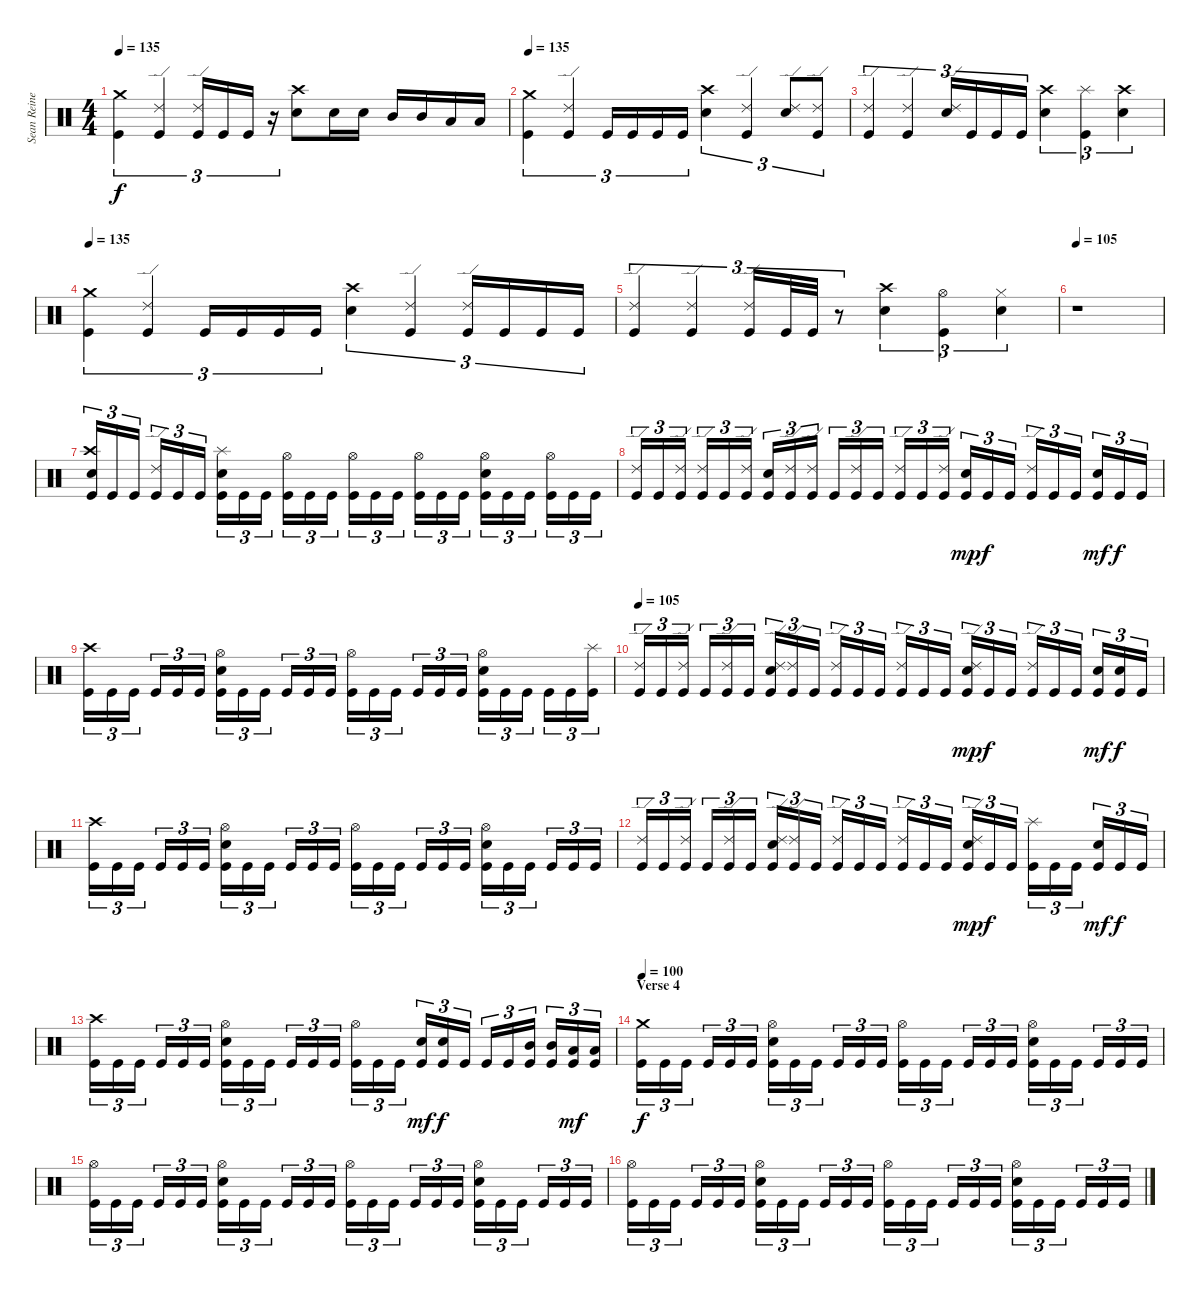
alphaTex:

\track ("Sean Reinert " "Sean Reine") {instrument percussion}
\staff {score}
\articulation defaults
\ts (4 4)
\tempo 135
\clef neutral
\ks c
("Crash medium (hit)" "Kick (hit)").4{tu (3 2) dy f} ("Ride (edge) 2" "Kick (hit)").4{tu (3 2)} ("Ride (edge) 2" "Kick (hit)").16{tu (3 2)} "Kick (hit)".16{tu (3 2)} "Kick (hit)".16{tu (3 2)} r.16{tu (3 2)} ("Crash high (hit)" "Electric Snare (hit)").8 "Electric Snare (hit)".16 "Electric Snare (hit)".16 "Mid Tom (hit)".16 "Mid Tom (hit)".16 "Low Tom (hit)".16 "Low Tom (hit)".16 |
\tempo 135
("Crash medium (hit)" "Kick (hit)").4{tu (3 2)} ("Ride (edge) 2" "Kick (hit)").4{tu (3 2)} "Kick (hit)".16{tu (3 2)} "Kick (hit)".16{tu (3 2)} "Kick (hit)".16{tu (3 2)} "Kick (hit)".16{tu (3 2)} ("Crash high (hit)" "Electric Snare (hit)").4{tu (3 2)} ("Ride (edge) 2" "Kick (hit)").4{tu (3 2)} ("Ride (edge) 2" "Electric Snare (hit)").8{tu (3 2)} ("Ride (edge) 2" "Kick (hit)").8{tu (3 2)} |
("Ride (edge) 2" "Kick (hit)").4{tu (3 2)} ("Ride (edge) 2" "Kick (hit)").4{tu (3 2)} ("Ride (edge) 2" "Electric Snare (hit)").16{tu (3 2)} "Kick (hit)".16{tu (3 2)} "Kick (hit)".16{tu (3 2)} "Kick (hit)".16{tu (3 2)} ("Crash high (hit)" "Electric Snare (hit)").4{tu (3 2)} ("Splash (hit)" "Kick (hit)").4{tu (3 2)} ("Crash high (hit)" "Electric Snare (hit)").4{tu (3 2)} |
\tempo 135
("Crash medium (hit)" "Kick (hit)").4{tu (3 2)} ("Ride (edge) 2" "Kick (hit)").4{tu (3 2)} "Kick (hit)".16{tu (3 2)} "Kick (hit)".16{tu (3 2)} "Kick (hit)".16{tu (3 2)} "Kick (hit)".16{tu (3 2)} ("Crash high (hit)" "Electric Snare (hit)").4{tu (3 2)} ("Ride (edge) 2" "Kick (hit)").4{tu (3 2)} ("Ride (edge) 2" "Kick (hit)").16{tu (3 2)} "Kick (hit)".16{tu (3 2)} "Kick (hit)".16{tu (3 2)} "Kick (hit)".16{tu (3 2)} |
("Ride (edge) 2" "Kick (hit)").4{tu (3 2)} ("Ride (edge) 2" "Kick (hit)").4{tu (3 2)} ("Ride (edge) 2" "Kick (hit)").16{tu (3 2)} "Kick (hit)".32{tu (3 2)} "Kick (hit)".32{tu (3 2)} r.8{tu (3 2)} ("Crash high (hit)" "Electric Snare (hit)").4{tu (3 2)} ("Hi-Hat (open)" "Kick (hit)").4{tu (3 2)} ("Hi-Hat (closed)" "Electric Snare (hit)").4{tu (3 2)} |
\tempo 105
r.1 |
("Crash high (hit)" "Electric Snare (hit)" "Kick (hit)").16{tu (3 2)} "Kick (hit)".16{tu (3 2)} "Kick (hit)".16{tu (3 2)} ("Ride (edge) 2" "Kick (hit)").16{tu (3 2)} "Kick (hit)".16{tu (3 2)} "Kick (hit)".16{tu (3 2)} ("Splash (hit)" "Electric Snare (hit)" "Kick (hit)").16{tu (3 2)} "Kick (hit)".16{tu (3 2)} "Kick (hit)".16{tu (3 2)} ("Hi-Hat (open)" "Kick (hit)").16{tu (3 2)} "Kick (hit)".16{tu (3 2)} "Kick (hit)".16{tu (3 2)} ("Hi-Hat (open)" "Kick (hit)").16{tu (3 2)} "Kick (hit)".16{tu (3 2)} "Kick (hit)".16{tu (3 2)} ("Hi-Hat (open)" "Kick (hit)").16{tu (3 2)} "Kick (hit)".16{tu (3 2)} "Kick (hit)".16{tu (3 2)} ("Hi-Hat (open)" "Electric Snare (hit)" "Kick (hit)").16{tu (3 2)} "Kick (hit)".16{tu (3 2)} "Kick (hit)".16{tu (3 2)} ("Hi-Hat (open)" "Kick (hit)").16{tu (3 2)} "Kick (hit)".16{tu (3 2)} "Kick (hit)".16{tu (3 2)} |
("Ride (edge) 2" "Kick (hit)").16{tu (3 2)} "Kick (hit)".16{tu (3 2)} ("Ride (edge) 2" "Kick (hit)").16{tu (3 2)} ("Ride (edge) 2" "Kick (hit)").16{tu (3 2)} "Kick (hit)".16{tu (3 2)} ("Ride (edge) 2" "Kick (hit)").16{tu (3 2)} ("Electric Snare (hit)" "Kick (hit)").16{tu (3 2)} ("Ride (edge) 2" "Kick (hit)").16{tu (3 2)} ("Ride (edge) 2" "Kick (hit)").16{tu (3 2)} "Kick (hit)".16{tu (3 2)} ("Ride (edge) 2" "Kick (hit)").16{tu (3 2)} "Kick (hit)".16{tu (3 2)} ("Ride (edge) 2" "Kick (hit)").16{tu (3 2)} "Kick (hit)".16{tu (3 2)} ("Ride (edge) 2" "Kick (hit)").16{tu (3 2)} ("Electric Snare (hit)" "Kick (hit)").16{tu (3 2) dy mp} "Kick (hit)".16{tu (3 2) dy f} "Kick (hit)".16{tu (3 2)} ("Ride (edge) 2" "Kick (hit)").16{tu (3 2)} "Kick (hit)".16{tu (3 2)} "Kick (hit)".16{tu (3 2)} ("Electric Snare (hit)" "Kick (hit)").16{tu (3 2) dy mf} "Kick (hit)".16{tu (3 2) dy f} "Kick (hit)".16{tu (3 2)} |
("Crash high (hit)" "Kick (hit)").16{tu (3 2)} "Kick (hit)".16{tu (3 2)} "Kick (hit)".16{tu (3 2)} "Kick (hit)".16{tu (3 2)} "Kick (hit)".16{tu (3 2)} "Kick (hit)".16{tu (3 2)} ("Hi-Hat (open)" "Electric Snare (hit)" "Kick (hit)").16{tu (3 2)} "Kick (hit)".16{tu (3 2)} "Kick (hit)".16{tu (3 2)} "Kick (hit)".16{tu (3 2)} "Kick (hit)".16{tu (3 2)} "Kick (hit)".16{tu (3 2)} ("Hi-Hat (open)" "Kick (hit)").16{tu (3 2)} "Kick (hit)".16{tu (3 2)} "Kick (hit)".16{tu (3 2)} "Kick (hit)".16{tu (3 2)} "Kick (hit)".16{tu (3 2)} "Kick (hit)".16{tu (3 2)} ("Hi-Hat (open)" "Electric Snare (hit)" "Kick (hit)").16{tu (3 2)} "Kick (hit)".16{tu (3 2)} "Kick (hit)".16{tu (3 2)} "Kick (hit)".16{tu (3 2)} "Kick (hit)".16{tu (3 2)} ("Splash (hit)" "Kick (hit)").16{tu (3 2)} |
\tempo 105
("Ride (edge) 2" "Kick (hit)").16{tu (3 2)} "Kick (hit)".16{tu (3 2)} ("Ride (edge) 2" "Kick (hit)").16{tu (3 2)} "Kick (hit)".16{tu (3 2)} ("Ride (edge) 2" "Kick (hit)").16{tu (3 2)} "Kick (hit)".16{tu (3 2)} ("Ride (edge) 2" "Electric Snare (hit)" "Kick (hit)").16{tu (3 2)} ("Ride (edge) 2" "Kick (hit)").16{tu (3 2)} "Kick (hit)".16{tu (3 2)} ("Ride (edge) 2" "Kick (hit)").16{tu (3 2)} "Kick (hit)".16{tu (3 2)} "Kick (hit)".16{tu (3 2)} ("Ride (edge) 2" "Kick (hit)").16{tu (3 2)} "Kick (hit)".16{tu (3 2)} "Kick (hit)".16{tu (3 2)} ("Ride (edge) 2" "Electric Snare (hit)" "Kick (hit)").16{tu (3 2) dy mp} "Kick (hit)".16{tu (3 2) dy f} "Kick (hit)".16{tu (3 2)} ("Ride (edge) 2" "Kick (hit)").16{tu (3 2)} "Kick (hit)".16{tu (3 2)} "Kick (hit)".16{tu (3 2)} ("Electric Snare (hit)" "Kick (hit)").16{tu (3 2) dy mf} ("Electric Snare (hit)" "Kick (hit)").16{tu (3 2) dy f} "Kick (hit)".16{tu (3 2)} |
("Crash high (hit)" "Kick (hit)").16{tu (3 2)} "Kick (hit)".16{tu (3 2)} "Kick (hit)".16{tu (3 2)} "Kick (hit)".16{tu (3 2)} "Kick (hit)".16{tu (3 2)} "Kick (hit)".16{tu (3 2)} ("Hi-Hat (open)" "Electric Snare (hit)" "Kick (hit)").16{tu (3 2)} "Kick (hit)".16{tu (3 2)} "Kick (hit)".16{tu (3 2)} "Kick (hit)".16{tu (3 2)} "Kick (hit)".16{tu (3 2)} "Kick (hit)".16{tu (3 2)} ("Hi-Hat (open)" "Kick (hit)").16{tu (3 2)} "Kick (hit)".16{tu (3 2)} "Kick (hit)".16{tu (3 2)} "Kick (hit)".16{tu (3 2)} "Kick (hit)".16{tu (3 2)} "Kick (hit)".16{tu (3 2)} ("Hi-Hat (open)" "Electric Snare (hit)" "Kick (hit)").16{tu (3 2)} "Kick (hit)".16{tu (3 2)} "Kick (hit)".16{tu (3 2)} "Kick (hit)".16{tu (3 2)} "Kick (hit)".16{tu (3 2)} "Kick (hit)".16{tu (3 2)} |
("Ride (edge) 2" "Kick (hit)").16{tu (3 2)} "Kick (hit)".16{tu (3 2)} ("Ride (edge) 2" "Kick (hit)").16{tu (3 2)} "Kick (hit)".16{tu (3 2)} ("Ride (edge) 2" "Kick (hit)").16{tu (3 2)} "Kick (hit)".16{tu (3 2)} ("Ride (edge) 2" "Electric Snare (hit)" "Kick (hit)").16{tu (3 2)} ("Ride (edge) 2" "Kick (hit)").16{tu (3 2)} "Kick (hit)".16{tu (3 2)} ("Ride (edge) 2" "Kick (hit)").16{tu (3 2)} "Kick (hit)".16{tu (3 2)} "Kick (hit)".16{tu (3 2)} ("Ride (edge) 2" "Kick (hit)").16{tu (3 2)} "Kick (hit)".16{tu (3 2)} "Kick (hit)".16{tu (3 2)} ("Ride (edge) 2" "Electric Snare (hit)" "Kick (hit)").16{tu (3 2) dy mp} "Kick (hit)".16{tu (3 2) dy f} "Kick (hit)".16{tu (3 2)} ("Splash (hit)" "Kick (hit)").16{tu (3 2)} "Kick (hit)".16{tu (3 2)} "Kick (hit)".16{tu (3 2)} ("Electric Snare (hit)" "Kick (hit)").16{tu (3 2) dy mf} "Kick (hit)".16{tu (3 2) dy f} "Kick (hit)".16{tu (3 2)} |
("Crash high (hit)" "Kick (hit)").16{tu (3 2)} "Kick (hit)".16{tu (3 2)} "Kick (hit)".16{tu (3 2)} "Kick (hit)".16{tu (3 2)} "Kick (hit)".16{tu (3 2)} "Kick (hit)".16{tu (3 2)} ("Hi-Hat (open)" "Electric Snare (hit)" "Kick (hit)").16{tu (3 2)} "Kick (hit)".16{tu (3 2)} "Kick (hit)".16{tu (3 2)} "Kick (hit)".16{tu (3 2)} "Kick (hit)".16{tu (3 2)} "Kick (hit)".16{tu (3 2)} ("Hi-Hat (open)" "Kick (hit)").16{tu (3 2)} "Kick (hit)".16{tu (3 2)} "Kick (hit)".16{tu (3 2)} ("Electric Snare (hit)" "Kick (hit)").16{tu (3 2) dy mf} ("Electric Snare (hit)" "Kick (hit)").16{tu (3 2) dy f} "Kick (hit)".16{tu (3 2)} "Kick (hit)".16{tu (3 2)} "Kick (hit)".16{tu (3 2)} ("Mid Tom (hit)" "Kick (hit)").16{tu (3 2)} ("Mid Tom (hit)" "Kick (hit)").16{tu (3 2)} ("Low Tom (hit)" "Kick (hit)").16{tu (3 2) dy mf} ("Low Tom (hit)" "Kick (hit)").16{tu (3 2)} |
\section ("" "Verse 4")
\tempo 100
("Crash medium (hit)" "Kick (hit)").16{tu (3 2) dy f} "Kick (hit)".16{tu (3 2)} "Kick (hit)".16{tu (3 2)} "Kick (hit)".16{tu (3 2)} "Kick (hit)".16{tu (3 2)} "Kick (hit)".16{tu (3 2)} ("Hi-Hat (open)" "Electric Snare (hit)" "Kick (hit)").16{tu (3 2)} "Kick (hit)".16{tu (3 2)} "Kick (hit)".16{tu (3 2)} "Kick (hit)".16{tu (3 2)} "Kick (hit)".16{tu (3 2)} "Kick (hit)".16{tu (3 2)} ("Hi-Hat (open)" "Kick (hit)").16{tu (3 2)} "Kick (hit)".16{tu (3 2)} "Kick (hit)".16{tu (3 2)} "Kick (hit)".16{tu (3 2)} "Kick (hit)".16{tu (3 2)} "Kick (hit)".16{tu (3 2)} ("Hi-Hat (open)" "Electric Snare (hit)" "Kick (hit)").16{tu (3 2)} "Kick (hit)".16{tu (3 2)} "Kick (hit)".16{tu (3 2)} "Kick (hit)".16{tu (3 2)} "Kick (hit)".16{tu (3 2)} "Kick (hit)".16{tu (3 2)} |
("Hi-Hat (open)" "Kick (hit)").16{tu (3 2)} "Kick (hit)".16{tu (3 2)} "Kick (hit)".16{tu (3 2)} "Kick (hit)".16{tu (3 2)} "Kick (hit)".16{tu (3 2)} "Kick (hit)".16{tu (3 2)} ("Hi-Hat (open)" "Electric Snare (hit)" "Kick (hit)").16{tu (3 2)} "Kick (hit)".16{tu (3 2)} "Kick (hit)".16{tu (3 2)} "Kick (hit)".16{tu (3 2)} "Kick (hit)".16{tu (3 2)} "Kick (hit)".16{tu (3 2)} ("Hi-Hat (open)" "Kick (hit)").16{tu (3 2)} "Kick (hit)".16{tu (3 2)} "Kick (hit)".16{tu (3 2)} "Kick (hit)".16{tu (3 2)} "Kick (hit)".16{tu (3 2)} "Kick (hit)".16{tu (3 2)} ("Hi-Hat (open)" "Electric Snare (hit)" "Kick (hit)").16{tu (3 2)} "Kick (hit)".16{tu (3 2)} "Kick (hit)".16{tu (3 2)} "Kick (hit)".16{tu (3 2)} "Kick (hit)".16{tu (3 2)} "Kick (hit)".16{tu (3 2)} |
("Hi-Hat (open)" "Kick (hit)").16{tu (3 2)} "Kick (hit)".16{tu (3 2)} "Kick (hit)".16{tu (3 2)} "Kick (hit)".16{tu (3 2)} "Kick (hit)".16{tu (3 2)} "Kick (hit)".16{tu (3 2)} ("Hi-Hat (open)" "Electric Snare (hit)" "Kick (hit)").16{tu (3 2)} "Kick (hit)".16{tu (3 2)} "Kick (hit)".16{tu (3 2)} "Kick (hit)".16{tu (3 2)} "Kick (hit)".16{tu (3 2)} "Kick (hit)".16{tu (3 2)} ("Hi-Hat (open)" "Kick (hit)").16{tu (3 2)} "Kick (hit)".16{tu (3 2)} "Kick (hit)".16{tu (3 2)} "Kick (hit)".16{tu (3 2)} "Kick (hit)".16{tu (3 2)} "Kick (hit)".16{tu (3 2)} ("Hi-Hat (open)" "Electric Snare (hit)" "Kick (hit)").16{tu (3 2)} "Kick (hit)".16{tu (3 2)} "Kick (hit)".16{tu (3 2)} "Kick (hit)".16{tu (3 2)} "Kick (hit)".16{tu (3 2)} "Kick (hit)".16{tu (3 2)}
